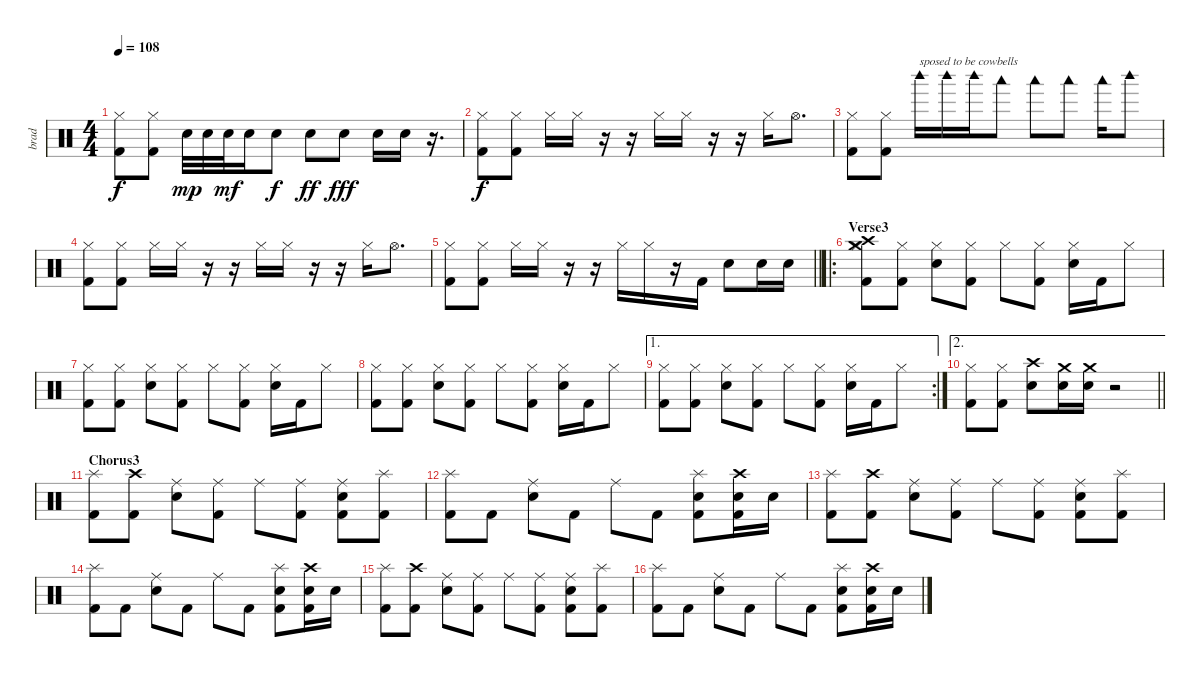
\track ("brad" "brad") {instrument percussion}
\staff {score}
\articulation defaults
\ts (4 4)
\tempo 108
\clef neutral
\ks c
("Hi-Hat (closed)" "Kick (hit) 2").8{dy f} ("Hi-Hat (closed)" "Kick (hit) 2").8 "Electric Snare (hit)".32{dy mp} "Electric Snare (hit)".32 "Electric Snare (hit)".32{dy mf} "Electric Snare (hit)".16 "Electric Snare (hit)".8{dy f} "Electric Snare (hit)".8{dy ff} "Electric Snare (hit)".8{dy fff} "Electric Snare (hit)".16 "Electric Snare (hit)".16 r.16{d} |
("Hi-Hat (closed)" "Kick (hit) 2").8{dy f} ("Hi-Hat (closed)" "Kick (hit) 2").8 "Hi-Hat (closed)".16 "Hi-Hat (closed)".16 r.16 r.16 "Hi-Hat (closed)".16 "Hi-Hat (closed)".16 r.16 r.16 "Hi-Hat (closed)".16 "Hi-Hat (open)".8{d} |
("Hi-Hat (closed)" "Kick (hit) 2").8 ("Hi-Hat (closed)" "Kick (hit) 2").8 "Woodblock high (hit)".16{txt "sposed to be cowbells"} "Woodblock high (hit)".16 "Woodblock high (hit)".16 "Woodblock low (hit)".8 "Woodblock low (hit)".8 "Woodblock low (hit)".8 "Woodblock low (hit)".16 "Woodblock high (hit)".8 |
("Hi-Hat (closed)" "Kick (hit) 2").8 ("Hi-Hat (closed)" "Kick (hit) 2").8 "Hi-Hat (closed)".16 "Hi-Hat (closed)".16 r.16 r.16 "Hi-Hat (closed)".16 "Hi-Hat (closed)".16 r.16 r.16 "Hi-Hat (closed)".16 "Hi-Hat (open)".8{d} |
\barLineRight lightlight
("Hi-Hat (closed)" "Kick (hit) 2").8 ("Hi-Hat (closed)" "Kick (hit) 2").8 "Hi-Hat (closed)".16 "Hi-Hat (closed)".16 r.16 r.16 "Hi-Hat (closed)".16 "Hi-Hat (closed)".16 r.16 "Kick (hit) 2".16 "Electric Snare (hit)".8 "Electric Snare (hit)".16 "Electric Snare (hit)".16 |
\ro
\section ("" "Verse3")
("Crash medium (hit)" "Crash high (hit)" "Hi-Hat (closed)" "Kick (hit) 2").8 ("Hi-Hat (closed)" "Kick (hit) 2").8 ("Hi-Hat (closed)" "Electric Snare (hit)").8 ("Hi-Hat (closed)" "Kick (hit) 2").8 "Hi-Hat (closed)".8 ("Hi-Hat (closed)" "Kick (hit) 2").8 ("Hi-Hat (closed)" "Electric Snare (hit)").16 "Kick (hit) 2".16 "Hi-Hat (closed)".8 |
("Hi-Hat (closed)" "Kick (hit) 2").8 ("Hi-Hat (closed)" "Kick (hit) 2").8 ("Hi-Hat (closed)" "Electric Snare (hit)").8 ("Hi-Hat (closed)" "Kick (hit) 2").8 "Hi-Hat (closed)".8 ("Hi-Hat (closed)" "Kick (hit) 2").8 ("Hi-Hat (closed)" "Electric Snare (hit)").16 "Kick (hit) 2".16 "Hi-Hat (closed)".8 |
("Hi-Hat (closed)" "Kick (hit) 2").8 ("Hi-Hat (closed)" "Kick (hit) 2").8 ("Hi-Hat (closed)" "Electric Snare (hit)").8 ("Hi-Hat (closed)" "Kick (hit) 2").8 "Hi-Hat (closed)".8 ("Hi-Hat (closed)" "Kick (hit) 2").8 ("Hi-Hat (closed)" "Electric Snare (hit)").16 "Kick (hit) 2".16 "Hi-Hat (closed)".8 |
\ae 1
\rc 2
("Hi-Hat (closed)" "Kick (hit) 2").8 ("Hi-Hat (closed)" "Kick (hit) 2").8 ("Hi-Hat (closed)" "Electric Snare (hit)").8 ("Hi-Hat (closed)" "Kick (hit) 2").8 "Hi-Hat (closed)".8 ("Hi-Hat (closed)" "Kick (hit) 2").8 ("Hi-Hat (closed)" "Electric Snare (hit)").16 "Kick (hit) 2".16 "Hi-Hat (closed)".8 |
\ae 2
\barLineRight lightlight
("Hi-Hat (closed)" "Kick (hit) 2").8 ("Hi-Hat (closed)" "Kick (hit) 2").8 ("Crash high (hit)" "Electric Snare (hit)").8 ("Crash medium (hit)" "Electric Snare (hit)").16 ("Crash medium (hit)" "Electric Snare (hit)").16 r.2 |
\section ("" "Chorus3")
("Splash (hit)" "Kick (hit) 2").8 ("Crash high (hit)" "Kick (hit) 2").8 ("Ride (middle)" "Electric Snare (hit)").8 ("Ride (middle)" "Kick (hit) 2").8 "Ride (middle)".8 ("Ride (middle)" "Kick (hit) 2").8 ("Ride (middle)" "Electric Snare (hit)" "Kick (hit) 2").8 ("Splash (hit)" "Kick (hit) 2").8 |
("Splash (hit)" "Kick (hit) 2").8 "Kick (hit) 2".8 ("Ride (middle)" "Electric Snare (hit)").8 "Kick (hit) 2".8 "Ride (middle)".8 "Kick (hit) 2".8 ("Splash (hit)" "Electric Snare (hit)" "Kick (hit) 2").8 ("Crash high (hit)" "Electric Snare (hit)" "Kick (hit) 2").16 "Electric Snare (hit)".16 |
("Splash (hit)" "Kick (hit) 2").8 ("Crash high (hit)" "Kick (hit) 2").8 ("Ride (middle)" "Electric Snare (hit)").8 ("Ride (middle)" "Kick (hit) 2").8 "Ride (middle)".8 ("Ride (middle)" "Kick (hit) 2").8 ("Ride (middle)" "Electric Snare (hit)" "Kick (hit) 2").8 ("Splash (hit)" "Kick (hit) 2").8 |
("Splash (hit)" "Kick (hit) 2").8 "Kick (hit) 2".8 ("Ride (middle)" "Electric Snare (hit)").8 "Kick (hit) 2".8 "Ride (middle)".8 "Kick (hit) 2".8 ("Splash (hit)" "Electric Snare (hit)" "Kick (hit) 2").8 ("Crash high (hit)" "Electric Snare (hit)" "Kick (hit) 2").16 "Electric Snare (hit)".16 |
("Splash (hit)" "Kick (hit) 2").8 ("Crash high (hit)" "Kick (hit) 2").8 ("Ride (middle)" "Electric Snare (hit)").8 ("Ride (middle)" "Kick (hit) 2").8 "Ride (middle)".8 ("Ride (middle)" "Kick (hit) 2").8 ("Ride (middle)" "Electric Snare (hit)" "Kick (hit) 2").8 ("Splash (hit)" "Kick (hit) 2").8 |
("Splash (hit)" "Kick (hit) 2").8 "Kick (hit) 2".8 ("Ride (middle)" "Electric Snare (hit)").8 "Kick (hit) 2".8 "Ride (middle)".8 "Kick (hit) 2".8 ("Splash (hit)" "Electric Snare (hit)" "Kick (hit) 2").8 ("Crash high (hit)" "Electric Snare (hit)" "Kick (hit) 2").16 "Electric Snare (hit)".16
